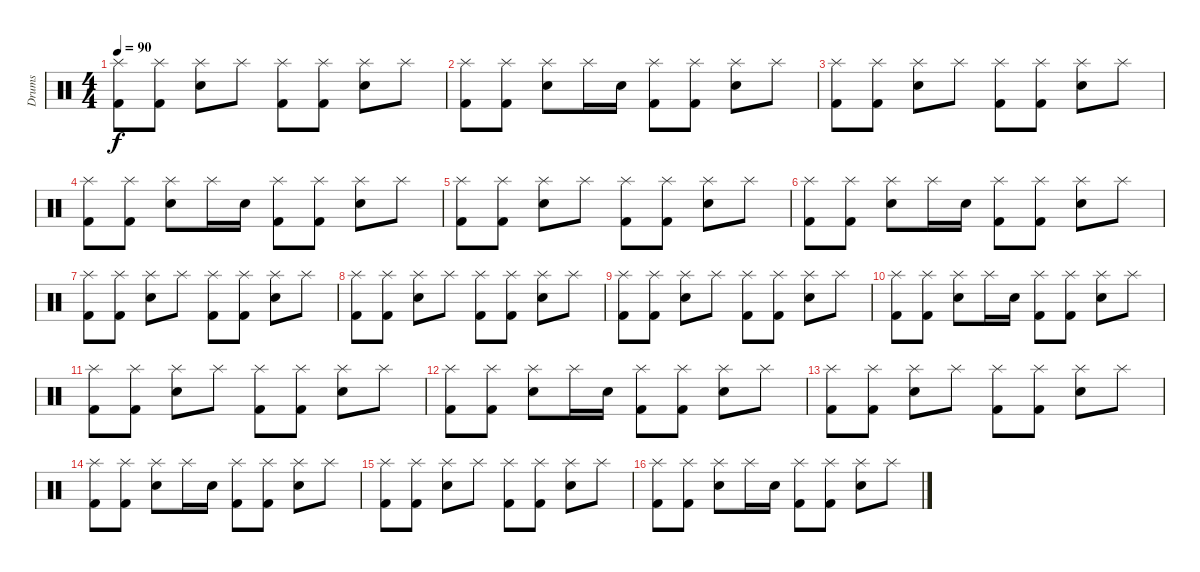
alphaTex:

\track ("Drums" "Drums") {instrument percussion}
\staff {score}
\articulation defaults
\ts (4 4)
\tempo 90
\clef neutral
\ks c
("Splash (hit)" "Kick (hit) 2").8{dy f} ("Splash (hit)" "Kick (hit) 2").8 ("Splash (hit)" "Snare (hit) 2").8 "Splash (hit)".8 ("Splash (hit)" "Kick (hit) 2").8 ("Splash (hit)" "Kick (hit) 2").8 ("Splash (hit)" "Snare (hit) 2").8 "Splash (hit)".8 |
("Splash (hit)" "Kick (hit) 2").8 ("Splash (hit)" "Kick (hit) 2").8 ("Splash (hit)" "Snare (hit) 2").8 "Splash (hit)".16 "Snare (hit) 2".16 ("Splash (hit)" "Kick (hit) 2").8 ("Splash (hit)" "Kick (hit) 2").8 ("Splash (hit)" "Snare (hit) 2").8 "Splash (hit)".8 |
("Splash (hit)" "Kick (hit) 2").8 ("Splash (hit)" "Kick (hit) 2").8 ("Splash (hit)" "Snare (hit) 2").8 "Splash (hit)".8 ("Splash (hit)" "Kick (hit) 2").8 ("Splash (hit)" "Kick (hit) 2").8 ("Splash (hit)" "Snare (hit) 2").8 "Splash (hit)".8 |
("Splash (hit)" "Kick (hit) 2").8 ("Splash (hit)" "Kick (hit) 2").8 ("Splash (hit)" "Snare (hit) 2").8 "Splash (hit)".16 "Snare (hit) 2".16 ("Splash (hit)" "Kick (hit) 2").8 ("Splash (hit)" "Kick (hit) 2").8 ("Splash (hit)" "Snare (hit) 2").8 "Splash (hit)".8 |
("Splash (hit)" "Kick (hit) 2").8 ("Splash (hit)" "Kick (hit) 2").8 ("Splash (hit)" "Snare (hit) 2").8 "Splash (hit)".8 ("Splash (hit)" "Kick (hit) 2").8 ("Splash (hit)" "Kick (hit) 2").8 ("Splash (hit)" "Snare (hit) 2").8 "Splash (hit)".8 |
("Splash (hit)" "Kick (hit) 2").8 ("Splash (hit)" "Kick (hit) 2").8 ("Splash (hit)" "Snare (hit) 2").8 "Splash (hit)".16 "Snare (hit) 2".16 ("Splash (hit)" "Kick (hit) 2").8 ("Splash (hit)" "Kick (hit) 2").8 ("Splash (hit)" "Snare (hit) 2").8 "Splash (hit)".8 |
("Splash (hit)" "Kick (hit) 2").8 ("Splash (hit)" "Kick (hit) 2").8 ("Splash (hit)" "Snare (hit) 2").8 "Splash (hit)".8 ("Splash (hit)" "Kick (hit) 2").8 ("Splash (hit)" "Kick (hit) 2").8 ("Splash (hit)" "Snare (hit) 2").8 "Splash (hit)".8 |
("Splash (hit)" "Kick (hit) 2").8 ("Splash (hit)" "Kick (hit) 2").8 ("Splash (hit)" "Snare (hit) 2").8 "Splash (hit)".8 ("Splash (hit)" "Kick (hit) 2").8 ("Splash (hit)" "Kick (hit) 2").8 ("Splash (hit)" "Snare (hit) 2").8 "Splash (hit)".8 |
("Splash (hit)" "Kick (hit) 2").8 ("Splash (hit)" "Kick (hit) 2").8 ("Splash (hit)" "Snare (hit) 2").8 "Splash (hit)".8 ("Splash (hit)" "Kick (hit) 2").8 ("Splash (hit)" "Kick (hit) 2").8 ("Splash (hit)" "Snare (hit) 2").8 "Splash (hit)".8 |
("Splash (hit)" "Kick (hit) 2").8 ("Splash (hit)" "Kick (hit) 2").8 ("Splash (hit)" "Snare (hit) 2").8 "Splash (hit)".16 "Snare (hit) 2".16 ("Splash (hit)" "Kick (hit) 2").8 ("Splash (hit)" "Kick (hit) 2").8 ("Splash (hit)" "Snare (hit) 2").8 "Splash (hit)".8 |
("Splash (hit)" "Kick (hit) 2").8 ("Splash (hit)" "Kick (hit) 2").8 ("Splash (hit)" "Snare (hit) 2").8 "Splash (hit)".8 ("Splash (hit)" "Kick (hit) 2").8 ("Splash (hit)" "Kick (hit) 2").8 ("Splash (hit)" "Snare (hit) 2").8 "Splash (hit)".8 |
("Splash (hit)" "Kick (hit) 2").8 ("Splash (hit)" "Kick (hit) 2").8 ("Splash (hit)" "Snare (hit) 2").8 "Splash (hit)".16 "Snare (hit) 2".16 ("Splash (hit)" "Kick (hit) 2").8 ("Splash (hit)" "Kick (hit) 2").8 ("Splash (hit)" "Snare (hit) 2").8 "Splash (hit)".8 |
("Splash (hit)" "Kick (hit) 2").8 ("Splash (hit)" "Kick (hit) 2").8 ("Splash (hit)" "Snare (hit) 2").8 "Splash (hit)".8 ("Splash (hit)" "Kick (hit) 2").8 ("Splash (hit)" "Kick (hit) 2").8 ("Splash (hit)" "Snare (hit) 2").8 "Splash (hit)".8 |
("Splash (hit)" "Kick (hit) 2").8 ("Splash (hit)" "Kick (hit) 2").8 ("Splash (hit)" "Snare (hit) 2").8 "Splash (hit)".16 "Snare (hit) 2".16 ("Splash (hit)" "Kick (hit) 2").8 ("Splash (hit)" "Kick (hit) 2").8 ("Splash (hit)" "Snare (hit) 2").8 "Splash (hit)".8 |
("Splash (hit)" "Kick (hit) 2").8 ("Splash (hit)" "Kick (hit) 2").8 ("Splash (hit)" "Snare (hit) 2").8 "Splash (hit)".8 ("Splash (hit)" "Kick (hit) 2").8 ("Splash (hit)" "Kick (hit) 2").8 ("Splash (hit)" "Snare (hit) 2").8 "Splash (hit)".8 |
("Splash (hit)" "Kick (hit) 2").8 ("Splash (hit)" "Kick (hit) 2").8 ("Splash (hit)" "Snare (hit) 2").8 "Splash (hit)".16 "Snare (hit) 2".16 ("Splash (hit)" "Kick (hit) 2").8 ("Splash (hit)" "Kick (hit) 2").8 ("Splash (hit)" "Snare (hit) 2").8 "Splash (hit)".8
